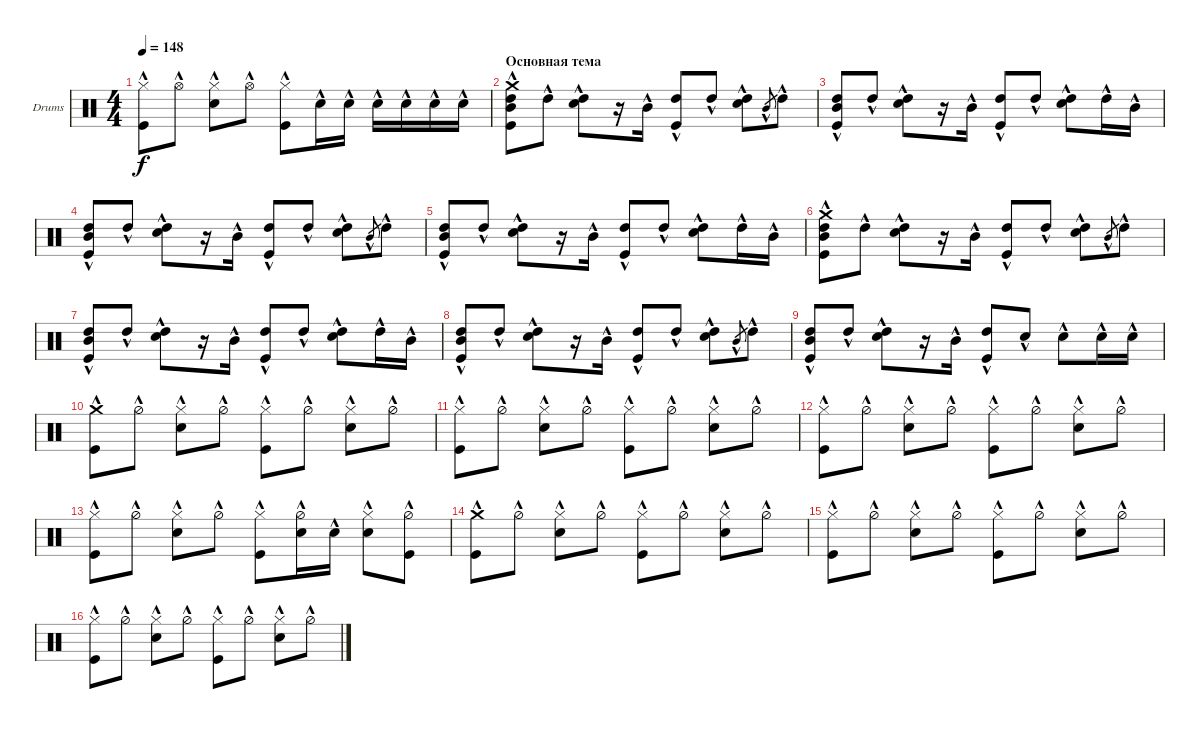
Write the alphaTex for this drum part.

\bracketExtendMode groupsimilarinstruments
\firstSystemTrackNameOrientation horizontal
\otherSystemsTrackNameOrientation horizontal
\track ("Drumkit" "Drums") {instrument percussion}
\staff {score}
\articulation defaults
\ts (4 4)
\tempo 148
\clef neutral
\ks c
("Kick (hit)"{hac} "Hi-Hat (closed)"{hac}).8{dy f} "Hi-Hat (open)"{hac}.8 ("Snare (hit) 2"{hac} "Hi-Hat (closed)"{hac}).8 "Hi-Hat (open)"{hac}.8 ("Kick (hit)"{hac} "Hi-Hat (closed)"{hac}).8 "Snare (hit) 2"{hac}.16 "Snare (hit) 2"{hac}.16 "Snare (hit) 2"{hac}.16 "Snare (hit) 2"{hac}.16 "Snare (hit) 2"{hac}.16 "Snare (hit) 2"{hac}.16 |
\section ("" "Основная тема")
("Kick (hit)"{hac} "High Tom (hit)"{hac} "Mid Tom (hit)"{hac} "Crash medium (hit)"{hac}).8 "High Tom (hit)"{hac}.8 ("Snare (hit) 2"{hac} "High Tom (hit)"{hac}).8 r.16 "Mid Tom (hit)"{hac}.16 ("Kick (hit)"{hac} "High Tom (hit)"{hac}).8 "High Tom (hit)"{hac}.8 ("Snare (hit) 2"{hac} "High Tom (hit)"{hac}).8 "Mid Tom (hit)"{hac}.8{gr} "High Tom (hit)"{hac}.8 |
("Kick (hit)"{hac} "High Tom (hit)"{hac} "Mid Tom (hit)"{hac}).8 "High Tom (hit)"{hac}.8 ("Snare (hit) 2"{hac} "High Tom (hit)"{hac}).8 r.16 "Mid Tom (hit)"{hac}.16 ("Kick (hit)"{hac} "High Tom (hit)"{hac}).8 "High Tom (hit)"{hac}.8 ("Snare (hit) 2"{hac} "High Tom (hit)"{hac}).8 "High Tom (hit)"{hac}.16 "Mid Tom (hit)"{hac}.16 |
("Kick (hit)"{hac} "High Tom (hit)"{hac} "Mid Tom (hit)"{hac}).8 "High Tom (hit)"{hac}.8 ("Snare (hit) 2"{hac} "High Tom (hit)"{hac}).8 r.16 "Mid Tom (hit)"{hac}.16 ("Kick (hit)"{hac} "High Tom (hit)"{hac}).8 "High Tom (hit)"{hac}.8 ("Snare (hit) 2"{hac} "High Tom (hit)"{hac}).8 "Mid Tom (hit)"{hac}.8{gr} "High Tom (hit)"{hac}.8 |
("Kick (hit)"{hac} "High Tom (hit)"{hac} "Mid Tom (hit)"{hac}).8 "High Tom (hit)"{hac}.8 ("Snare (hit) 2"{hac} "High Tom (hit)"{hac}).8 r.16 "Mid Tom (hit)"{hac}.16 ("Kick (hit)"{hac} "High Tom (hit)"{hac}).8 "High Tom (hit)"{hac}.8 ("Snare (hit) 2"{hac} "High Tom (hit)"{hac}).8 "High Tom (hit)"{hac}.16 "Mid Tom (hit)"{hac}.16 |
("Kick (hit)"{hac} "High Tom (hit)"{hac} "Mid Tom (hit)"{hac} "Crash medium (hit)"{hac}).8 "High Tom (hit)"{hac}.8 ("Snare (hit) 2"{hac} "High Tom (hit)"{hac}).8 r.16 "Mid Tom (hit)"{hac}.16 ("Kick (hit)"{hac} "High Tom (hit)"{hac}).8 "High Tom (hit)"{hac}.8 ("Snare (hit) 2"{hac} "High Tom (hit)"{hac}).8 "Mid Tom (hit)"{hac}.8{gr} "High Tom (hit)"{hac}.8 |
("Kick (hit)"{hac} "High Tom (hit)"{hac} "Mid Tom (hit)"{hac}).8 "High Tom (hit)"{hac}.8 ("Snare (hit) 2"{hac} "High Tom (hit)"{hac}).8 r.16 "Mid Tom (hit)"{hac}.16 ("Kick (hit)"{hac} "High Tom (hit)"{hac}).8 "High Tom (hit)"{hac}.8 ("Snare (hit) 2"{hac} "High Tom (hit)"{hac}).8 "High Tom (hit)"{hac}.16 "Mid Tom (hit)"{hac}.16 |
("Kick (hit)"{hac} "High Tom (hit)"{hac} "Mid Tom (hit)"{hac}).8 "High Tom (hit)"{hac}.8 ("Snare (hit) 2"{hac} "High Tom (hit)"{hac}).8 r.16 "Mid Tom (hit)"{hac}.16 ("Kick (hit)"{hac} "High Tom (hit)"{hac}).8 "High Tom (hit)"{hac}.8 ("Snare (hit) 2"{hac} "High Tom (hit)"{hac}).8 "Mid Tom (hit)"{hac}.8{gr} "High Tom (hit)"{hac}.8 |
("Kick (hit)"{hac} "High Tom (hit)"{hac} "Mid Tom (hit)"{hac}).8 "High Tom (hit)"{hac}.8 ("Snare (hit) 2"{hac} "High Tom (hit)"{hac}).8 r.16 "Mid Tom (hit)"{hac}.16 ("Kick (hit)"{hac} "High Tom (hit)"{hac}).8 "Snare (hit) 2"{hac}.8 "Snare (hit) 2"{hac}.8 "Snare (hit) 2"{hac}.16 "Snare (hit) 2"{hac}.16 |
("Kick (hit)"{hac} "Crash medium (hit)"{hac}).8 "Hi-Hat (half)"{hac}.8 ("Snare (hit) 2"{hac} "Hi-Hat (closed)"{hac}).8 "Hi-Hat (half)"{hac}.8 ("Kick (hit)"{hac} "Hi-Hat (closed)"{hac}).8 "Hi-Hat (half)"{hac}.8 ("Snare (hit) 2"{hac} "Hi-Hat (closed)"{hac}).8 "Hi-Hat (half)"{hac}.8 |
("Kick (hit)"{hac} "Hi-Hat (closed)"{hac}).8 "Hi-Hat (half)"{hac}.8 ("Snare (hit) 2"{hac} "Hi-Hat (closed)"{hac}).8 "Hi-Hat (half)"{hac}.8 ("Kick (hit)"{hac} "Hi-Hat (closed)"{hac}).8 "Hi-Hat (half)"{hac}.8 ("Snare (hit) 2"{hac} "Hi-Hat (closed)"{hac}).8 "Hi-Hat (half)"{hac}.8 |
("Kick (hit)"{hac} "Hi-Hat (closed)"{hac}).8 "Hi-Hat (half)"{hac}.8 ("Snare (hit) 2"{hac} "Hi-Hat (closed)"{hac}).8 "Hi-Hat (half)"{hac}.8 ("Kick (hit)"{hac} "Hi-Hat (closed)"{hac}).8 "Hi-Hat (half)"{hac}.8 ("Snare (hit) 2"{hac} "Hi-Hat (closed)"{hac}).8 "Hi-Hat (half)"{hac}.8 |
("Kick (hit)"{hac} "Hi-Hat (closed)"{hac}).8 "Hi-Hat (half)"{hac}.8 ("Snare (hit) 2"{hac} "Hi-Hat (closed)"{hac}).8 "Hi-Hat (half)"{hac}.8 ("Kick (hit)"{hac} "Hi-Hat (closed)"{hac}).8 ("Hi-Hat (half)"{hac} "Snare (hit) 2"{hac}).16 "Snare (hit) 2"{hac}.16 ("Snare (hit) 2"{hac} "Hi-Hat (closed)"{hac}).8 ("Hi-Hat (half)"{hac} "Kick (hit)"{hac}).8 |
("Kick (hit)"{hac} "Crash medium (hit)"{hac}).8 "Hi-Hat (half)"{hac}.8 ("Snare (hit) 2"{hac} "Hi-Hat (closed)"{hac}).8 "Hi-Hat (half)"{hac}.8 ("Kick (hit)"{hac} "Hi-Hat (closed)"{hac}).8 "Hi-Hat (half)"{hac}.8 ("Snare (hit) 2"{hac} "Hi-Hat (closed)"{hac}).8 "Hi-Hat (half)"{hac}.8 |
("Kick (hit)"{hac} "Hi-Hat (closed)"{hac}).8 "Hi-Hat (half)"{hac}.8 ("Snare (hit) 2"{hac} "Hi-Hat (closed)"{hac}).8 "Hi-Hat (half)"{hac}.8 ("Kick (hit)"{hac} "Hi-Hat (closed)"{hac}).8 "Hi-Hat (half)"{hac}.8 ("Snare (hit) 2"{hac} "Hi-Hat (closed)"{hac}).8 "Hi-Hat (half)"{hac}.8 |
("Kick (hit)"{hac} "Hi-Hat (closed)"{hac}).8 "Hi-Hat (half)"{hac}.8 ("Snare (hit) 2"{hac} "Hi-Hat (closed)"{hac}).8 "Hi-Hat (half)"{hac}.8 ("Kick (hit)"{hac} "Hi-Hat (closed)"{hac}).8 "Hi-Hat (half)"{hac}.8 ("Snare (hit) 2"{hac} "Hi-Hat (closed)"{hac}).8 "Hi-Hat (half)"{hac}.8
